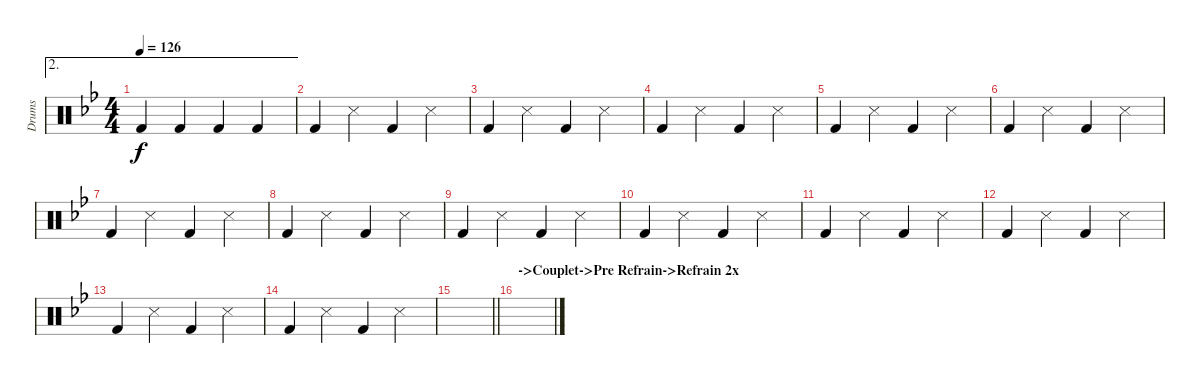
\track ("Drums" "Drums") {instrument percussion}
\staff {score}
\articulation defaults
\ae 2
\ts (4 4)
\tempo 126
\clef neutral
\ks bb "Kick (hit) 2".4{dy f} "Kick (hit) 2".4 "Kick (hit) 2".4 "Kick (hit) 2".4
|
"Kick (hit) 2".4 "Snare (side stick) 3".4 "Kick (hit) 2".4 "Snare (side stick) 3".4 |
"Kick (hit) 2".4 "Snare (side stick) 3".4 "Kick (hit) 2".4 "Snare (side stick) 3".4 |
"Kick (hit) 2".4 "Snare (side stick) 3".4 "Kick (hit) 2".4 "Snare (side stick) 3".4 |
"Kick (hit) 2".4 "Snare (side stick) 3".4 "Kick (hit) 2".4 "Snare (side stick) 3".4 |
"Kick (hit) 2".4 "Snare (side stick) 3".4 "Kick (hit) 2".4 "Snare (side stick) 3".4 |
"Kick (hit) 2".4 "Snare (side stick) 3".4 "Kick (hit) 2".4 "Snare (side stick) 3".4 |
"Kick (hit) 2".4 "Snare (side stick) 3".4 "Kick (hit) 2".4 "Snare (side stick) 3".4 |
"Kick (hit) 2".4 "Snare (side stick) 3".4 "Kick (hit) 2".4 "Snare (side stick) 3".4 |
"Kick (hit) 2".4 "Snare (side stick) 3".4 "Kick (hit) 2".4 "Snare (side stick) 3".4 |
"Kick (hit) 2".4 "Snare (side stick) 3".4 "Kick (hit) 2".4 "Snare (side stick) 3".4 |
"Kick (hit) 2".4 "Snare (side stick) 3".4 "Kick (hit) 2".4 "Snare (side stick) 3".4 |
"Kick (hit) 2".4 "Snare (side stick) 3".4 "Kick (hit) 2".4 "Snare (side stick) 3".4 |
"Kick (hit) 2".4 "Snare (side stick) 3".4 "Kick (hit) 2".4 "Snare (side stick) 3".4 |
\barLineRight lightlight
|
\section ("" "->Couplet->Pre Refrain->Refrain 2x")
